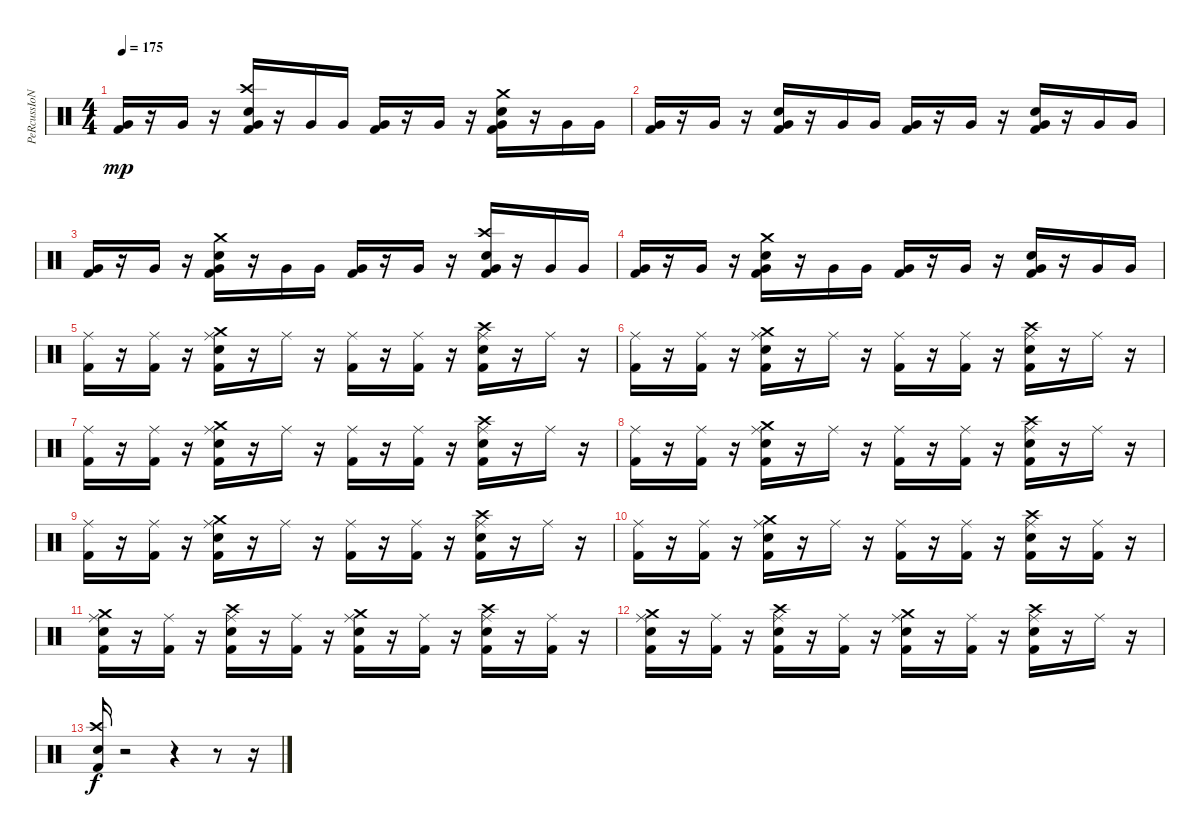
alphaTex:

\track ("PeRcussIoNs" "PeRcussIoN") {instrument percussion}
\staff {score}
\articulation defaults
\ts (4 4)
\tempo 175
\clef neutral
\ks c
("Kick (hit) 2" "Very Low Tom (hit)").16{dy mp} r.16 "Very Low Tom (hit)".16 r.16 ("Crash high (hit)" "Electric Snare (hit)" "Kick (hit) 2" "Very Low Tom (hit)").16 r.16 "Very Low Tom (hit)".16 "Very Low Tom (hit)".16 ("Kick (hit) 2" "Very Low Tom (hit)").16 r.16 "Very Low Tom (hit)".16 r.16 ("Crash medium (hit)" "Electric Snare (hit)" "Kick (hit) 2" "Very Low Tom (hit)").16 r.16 "Very Low Tom (hit)".16 "Very Low Tom (hit)".16 |
("Kick (hit) 2" "Very Low Tom (hit)").16 r.16 "Very Low Tom (hit)".16 r.16 ("Electric Snare (hit)" "Kick (hit) 2" "Very Low Tom (hit)").16 r.16 "Very Low Tom (hit)".16 "Very Low Tom (hit)".16 ("Kick (hit) 2" "Very Low Tom (hit)").16 r.16 "Very Low Tom (hit)".16 r.16 ("Electric Snare (hit)" "Kick (hit) 2" "Very Low Tom (hit)").16 r.16 "Very Low Tom (hit)".16 "Very Low Tom (hit)".16 |
("Kick (hit) 2" "Very Low Tom (hit)").16 r.16 "Very Low Tom (hit)".16 r.16 ("Crash medium (hit)" "Electric Snare (hit)" "Kick (hit) 2" "Very Low Tom (hit)").16 r.16 "Very Low Tom (hit)".16 "Very Low Tom (hit)".16 ("Kick (hit) 2" "Very Low Tom (hit)").16 r.16 "Very Low Tom (hit)".16 r.16 ("Crash high (hit)" "Electric Snare (hit)" "Kick (hit) 2" "Very Low Tom (hit)").16 r.16 "Very Low Tom (hit)".16 "Very Low Tom (hit)".16 |
("Very Low Tom (hit)" "Kick (hit) 2").16 r.16 "Very Low Tom (hit)".16 r.16 ("Very Low Tom (hit)" "Crash medium (hit)" "Electric Snare (hit)" "Kick (hit) 2").16 r.16 "Very Low Tom (hit)".16 "Very Low Tom (hit)".16 ("Very Low Tom (hit)" "Kick (hit) 2").16 r.16 "Very Low Tom (hit)".16 r.16 ("Very Low Tom (hit)" "Electric Snare (hit)" "Kick (hit) 2").16 r.16 "Very Low Tom (hit)".16 "Very Low Tom (hit)".16 |
("Ride (middle)" "Kick (hit) 2").16 r.16 ("Ride (middle)" "Kick (hit) 2").16 r.16 ("Ride (middle)" "Crash medium (hit)" "Electric Snare (hit)" "Kick (hit) 2").16 r.16 "Ride (middle)".16 r.16 ("Ride (middle)" "Kick (hit) 2").16 r.16 ("Ride (middle)" "Kick (hit) 2").16 r.16 ("Ride (middle)" "Crash high (hit)" "Kick (hit) 2" "Electric Snare (hit)").16 r.16 "Ride (middle)".16 r.16 |
("Kick (hit) 2" "Ride (middle)").16 r.16 ("Kick (hit) 2" "Ride (middle)").16 r.16 ("Crash medium (hit)" "Electric Snare (hit)" "Kick (hit) 2" "Ride (middle)").16 r.16 "Ride (middle)".16 r.16 ("Kick (hit) 2" "Ride (middle)").16 r.16 ("Kick (hit) 2" "Ride (middle)").16 r.16 ("Crash high (hit)" "Kick (hit) 2" "Electric Snare (hit)" "Ride (middle)").16 r.16 "Ride (middle)".16 r.16 |
("Kick (hit) 2" "Ride (middle)").16 r.16 ("Kick (hit) 2" "Ride (middle)").16 r.16 ("Crash medium (hit)" "Electric Snare (hit)" "Kick (hit) 2" "Ride (middle)").16 r.16 "Ride (middle)".16 r.16 ("Kick (hit) 2" "Ride (middle)").16 r.16 ("Kick (hit) 2" "Ride (middle)").16 r.16 ("Crash high (hit)" "Kick (hit) 2" "Electric Snare (hit)" "Ride (middle)").16 r.16 "Ride (middle)".16 r.16 |
("Kick (hit) 2" "Ride (middle)").16 r.16 ("Kick (hit) 2" "Ride (middle)").16 r.16 ("Crash medium (hit)" "Electric Snare (hit)" "Kick (hit) 2" "Ride (middle)").16 r.16 "Ride (middle)".16 r.16 ("Kick (hit) 2" "Ride (middle)").16 r.16 ("Kick (hit) 2" "Ride (middle)").16 r.16 ("Crash high (hit)" "Kick (hit) 2" "Electric Snare (hit)" "Ride (middle)").16 r.16 "Ride (middle)".16 r.16 |
("Kick (hit) 2" "Ride (middle)").16 r.16 ("Kick (hit) 2" "Ride (middle)").16 r.16 ("Crash medium (hit)" "Electric Snare (hit)" "Kick (hit) 2" "Ride (middle)").16 r.16 "Ride (middle)".16 r.16 ("Kick (hit) 2" "Ride (middle)").16 r.16 ("Kick (hit) 2" "Ride (middle)").16 r.16 ("Crash high (hit)" "Kick (hit) 2" "Electric Snare (hit)" "Ride (middle)").16 r.16 "Ride (middle)".16 r.16 |
("Kick (hit) 2" "Ride (middle)").16 r.16 ("Kick (hit) 2" "Ride (middle)").16 r.16 ("Crash medium (hit)" "Electric Snare (hit)" "Kick (hit) 2" "Ride (middle)").16 r.16 "Ride (middle)".16 r.16 ("Kick (hit) 2" "Ride (middle)").16 r.16 ("Kick (hit) 2" "Ride (middle)").16 r.16 ("Crash high (hit)" "Kick (hit) 2" "Electric Snare (hit)" "Ride (middle)").16 r.16 ("Kick (hit) 2" "Ride (middle)").16 r.16 |
("Crash medium (hit)" "Electric Snare (hit)" "Kick (hit) 2" "Ride (middle)").16 r.16 ("Kick (hit) 2" "Ride (middle)").16 r.16 ("Crash high (hit)" "Electric Snare (hit)" "Kick (hit) 2" "Ride (middle)").16 r.16 ("Kick (hit) 2" "Ride (middle)").16 r.16 ("Crash medium (hit)" "Electric Snare (hit)" "Kick (hit) 2" "Ride (middle)").16 r.16 ("Kick (hit) 2" "Ride (middle)").16 r.16 ("Crash high (hit)" "Kick (hit) 2" "Electric Snare (hit)" "Ride (middle)").16 r.16 ("Kick (hit) 2" "Ride (middle)").16 r.16 |
("Crash medium (hit)" "Electric Snare (hit)" "Kick (hit) 2" "Ride (middle)").16 r.16 ("Kick (hit) 2" "Ride (middle)").16 r.16 ("Crash high (hit)" "Electric Snare (hit)" "Kick (hit) 2" "Ride (middle)").16 r.16 ("Kick (hit) 2" "Ride (middle)").16 r.16 ("Crash medium (hit)" "Electric Snare (hit)" "Kick (hit) 2" "Ride (middle)").16 r.16 ("Kick (hit) 2" "Ride (middle)").16 r.16 ("Crash high (hit)" "Kick (hit) 2" "Electric Snare (hit)" "Ride (middle)").16 r.16 "Ride (middle)".16 r.16 |
("Kick (hit) 2" "Electric Snare (hit)" "Crash high (hit)").16{dy f} r.2 r.4 r.8 r.16
